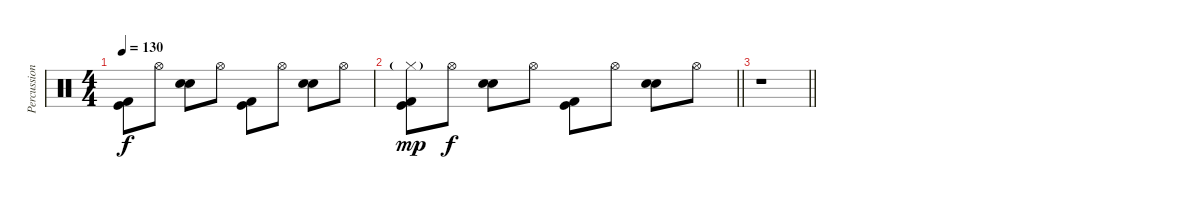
\track ("Percussion" "Percussion") {instrument percussion}
\staff {score}
\articulation defaults
\ts (4 4)
\tempo 130
\clef neutral
\ks c
("Kick (hit) 2" "Kick (hit)").8{dy f} "Hi-Hat (open)".8 ("Electric Snare (hit)" "Snare (hit) 2").8 "Hi-Hat (open)".8 ("Kick (hit) 2" "Kick (hit)").8 "Hi-Hat (open)".8 ("Electric Snare (hit)" "Snare (hit) 2").8 "Hi-Hat (open)".8 |
\barLineRight lightlight
("Kick (hit) 2" "Kick (hit)" "Hi-Hat (closed)"{g}).8{dy mp} "Hi-Hat (open)".8{dy f} ("Electric Snare (hit)" "Snare (hit) 2").8 "Hi-Hat (open)".8 ("Kick (hit) 2" "Kick (hit)").8 "Hi-Hat (open)".8 ("Electric Snare (hit)" "Snare (hit) 2").8 "Hi-Hat (open)".8 |
\barLineRight lightlight
r.1
